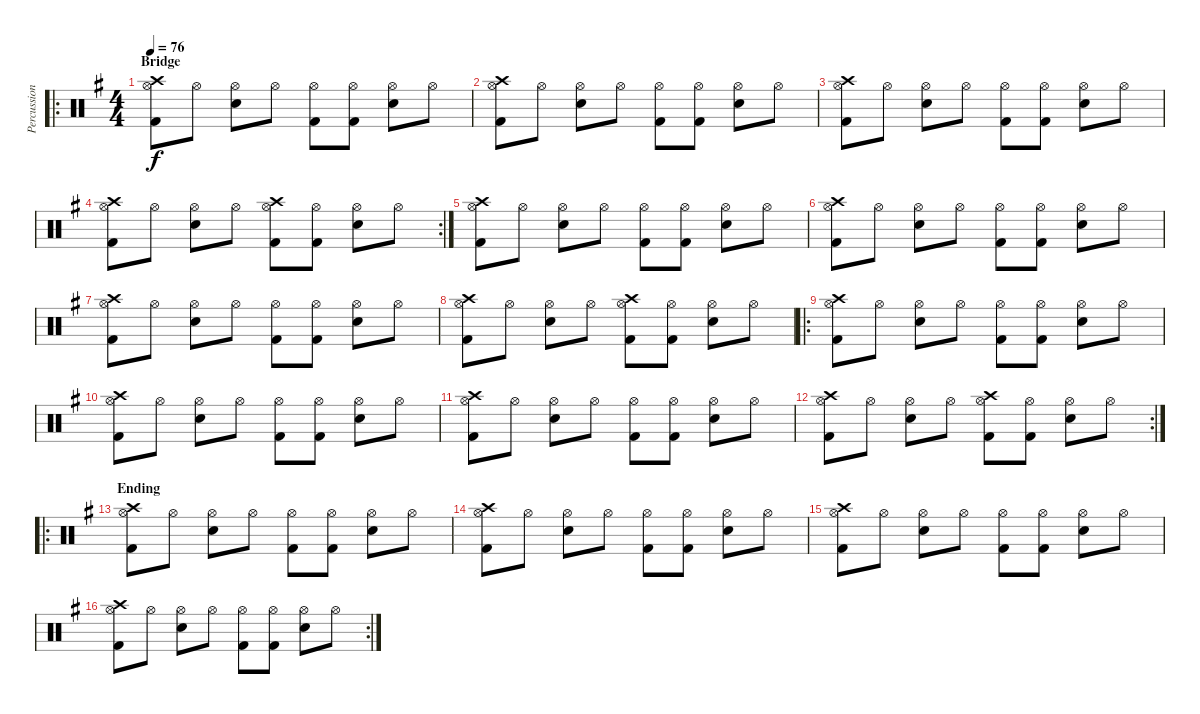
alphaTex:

\track ("Percussions" "Percussion") {instrument percussion}
\staff {score}
\articulation defaults
\ro
\ts (4 4)
\section ("" "Bridge")
\tempo 76
\clef neutral
\ks g
("Crash high (hit)" "Kick (hit) 2" "Hi-Hat (open)").8{dy f} "Hi-Hat (open)".8 ("Hi-Hat (open)" "Snare (hit) 2").8 "Hi-Hat (open)".8 ("Kick (hit) 2" "Hi-Hat (open)").8 ("Kick (hit) 2" "Hi-Hat (open)").8 ("Hi-Hat (open)" "Snare (hit) 2").8 "Hi-Hat (open)".8 |
("Crash high (hit)" "Kick (hit) 2" "Hi-Hat (open)").8 "Hi-Hat (open)".8 ("Hi-Hat (open)" "Snare (hit) 2").8 "Hi-Hat (open)".8 ("Kick (hit) 2" "Hi-Hat (open)").8 ("Kick (hit) 2" "Hi-Hat (open)").8 ("Hi-Hat (open)" "Snare (hit) 2").8 "Hi-Hat (open)".8 |
("Crash high (hit)" "Kick (hit) 2" "Hi-Hat (open)").8 "Hi-Hat (open)".8 ("Hi-Hat (open)" "Snare (hit) 2").8 "Hi-Hat (open)".8 ("Kick (hit) 2" "Hi-Hat (open)").8 ("Kick (hit) 2" "Hi-Hat (open)").8 ("Hi-Hat (open)" "Snare (hit) 2").8 "Hi-Hat (open)".8 |
\rc 2
("Crash high (hit)" "Kick (hit) 2" "Hi-Hat (open)").8 "Hi-Hat (open)".8 ("Hi-Hat (open)" "Snare (hit) 2").8 "Hi-Hat (open)".8 ("Crash high (hit)" "Kick (hit) 2" "Hi-Hat (open)").8 ("Kick (hit) 2" "Hi-Hat (open)").8 ("Hi-Hat (open)" "Snare (hit) 2").8 "Hi-Hat (open)".8 |
("Crash high (hit)" "Kick (hit) 2" "Hi-Hat (open)").8 "Hi-Hat (open)".8 ("Hi-Hat (open)" "Snare (hit) 2").8 "Hi-Hat (open)".8 ("Kick (hit) 2" "Hi-Hat (open)").8 ("Kick (hit) 2" "Hi-Hat (open)").8 ("Hi-Hat (open)" "Snare (hit) 2").8 "Hi-Hat (open)".8 |
("Crash high (hit)" "Kick (hit) 2" "Hi-Hat (open)").8 "Hi-Hat (open)".8 ("Hi-Hat (open)" "Snare (hit) 2").8 "Hi-Hat (open)".8 ("Kick (hit) 2" "Hi-Hat (open)").8 ("Kick (hit) 2" "Hi-Hat (open)").8 ("Hi-Hat (open)" "Snare (hit) 2").8 "Hi-Hat (open)".8 |
("Crash high (hit)" "Kick (hit) 2" "Hi-Hat (open)").8 "Hi-Hat (open)".8 ("Hi-Hat (open)" "Snare (hit) 2").8 "Hi-Hat (open)".8 ("Kick (hit) 2" "Hi-Hat (open)").8 ("Kick (hit) 2" "Hi-Hat (open)").8 ("Hi-Hat (open)" "Snare (hit) 2").8 "Hi-Hat (open)".8 |
("Crash high (hit)" "Kick (hit) 2" "Hi-Hat (open)").8 "Hi-Hat (open)".8 ("Hi-Hat (open)" "Snare (hit) 2").8 "Hi-Hat (open)".8 ("Crash high (hit)" "Kick (hit) 2" "Hi-Hat (open)").8 ("Kick (hit) 2" "Hi-Hat (open)").8 ("Hi-Hat (open)" "Snare (hit) 2").8 "Hi-Hat (open)".8 |
\ro
("Crash high (hit)" "Kick (hit) 2" "Hi-Hat (open)").8 "Hi-Hat (open)".8 ("Hi-Hat (open)" "Snare (hit) 2").8 "Hi-Hat (open)".8 ("Kick (hit) 2" "Hi-Hat (open)").8 ("Kick (hit) 2" "Hi-Hat (open)").8 ("Hi-Hat (open)" "Snare (hit) 2").8 "Hi-Hat (open)".8 |
("Crash high (hit)" "Kick (hit) 2" "Hi-Hat (open)").8 "Hi-Hat (open)".8 ("Hi-Hat (open)" "Snare (hit) 2").8 "Hi-Hat (open)".8 ("Kick (hit) 2" "Hi-Hat (open)").8 ("Kick (hit) 2" "Hi-Hat (open)").8 ("Hi-Hat (open)" "Snare (hit) 2").8 "Hi-Hat (open)".8 |
("Crash high (hit)" "Kick (hit) 2" "Hi-Hat (open)").8 "Hi-Hat (open)".8 ("Hi-Hat (open)" "Snare (hit) 2").8 "Hi-Hat (open)".8 ("Kick (hit) 2" "Hi-Hat (open)").8 ("Kick (hit) 2" "Hi-Hat (open)").8 ("Hi-Hat (open)" "Snare (hit) 2").8 "Hi-Hat (open)".8 |
\rc 2
("Crash high (hit)" "Kick (hit) 2" "Hi-Hat (open)").8 "Hi-Hat (open)".8 ("Hi-Hat (open)" "Snare (hit) 2").8 "Hi-Hat (open)".8 ("Crash high (hit)" "Kick (hit) 2" "Hi-Hat (open)").8 ("Kick (hit) 2" "Hi-Hat (open)").8 ("Hi-Hat (open)" "Snare (hit) 2").8 "Hi-Hat (open)".8 |
\ro
\section ("" "Ending")
("Crash high (hit)" "Kick (hit) 2" "Hi-Hat (open)").8 "Hi-Hat (open)".8 ("Hi-Hat (open)" "Snare (hit) 2").8 "Hi-Hat (open)".8 ("Kick (hit) 2" "Hi-Hat (open)").8 ("Kick (hit) 2" "Hi-Hat (open)").8 ("Hi-Hat (open)" "Snare (hit) 2").8 "Hi-Hat (open)".8 |
("Crash high (hit)" "Kick (hit) 2" "Hi-Hat (open)").8 "Hi-Hat (open)".8 ("Hi-Hat (open)" "Snare (hit) 2").8 "Hi-Hat (open)".8 ("Kick (hit) 2" "Hi-Hat (open)").8 ("Kick (hit) 2" "Hi-Hat (open)").8 ("Hi-Hat (open)" "Snare (hit) 2").8 "Hi-Hat (open)".8 |
("Crash high (hit)" "Kick (hit) 2" "Hi-Hat (open)").8 "Hi-Hat (open)".8 ("Hi-Hat (open)" "Snare (hit) 2").8 "Hi-Hat (open)".8 ("Kick (hit) 2" "Hi-Hat (open)").8 ("Kick (hit) 2" "Hi-Hat (open)").8 ("Hi-Hat (open)" "Snare (hit) 2").8 "Hi-Hat (open)".8 |
\rc 2
("Crash high (hit)" "Kick (hit) 2" "Hi-Hat (open)").8 "Hi-Hat (open)".8 ("Hi-Hat (open)" "Snare (hit) 2").8 "Hi-Hat (open)".8 ("Kick (hit) 2" "Hi-Hat (open)").8 ("Kick (hit) 2" "Hi-Hat (open)").8 ("Hi-Hat (open)" "Snare (hit) 2").8 "Hi-Hat (open)".8
